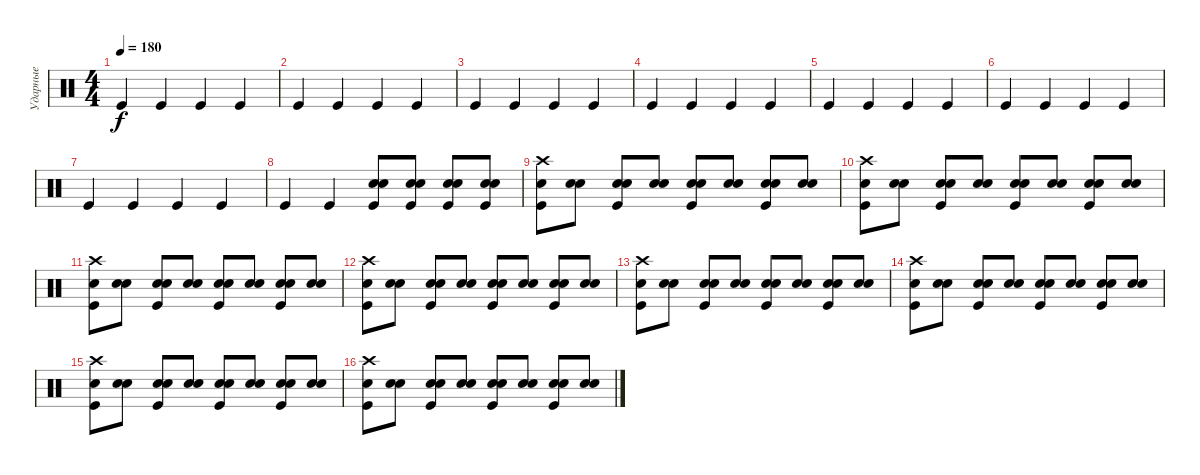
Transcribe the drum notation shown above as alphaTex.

\track ("Ударные" "Ударные") {instrument percussion}
\staff {score}
\articulation defaults
\ts (4 4)
\tempo 180
\clef neutral
\ks c "Kick (hit)".4{dy f} "Kick (hit)".4 "Kick (hit)".4 "Kick (hit)".4
|
"Kick (hit)".4 "Kick (hit)".4 "Kick (hit)".4 "Kick (hit)".4 |
"Kick (hit)".4 "Kick (hit)".4 "Kick (hit)".4 "Kick (hit)".4 |
"Kick (hit)".4 "Kick (hit)".4 "Kick (hit)".4 "Kick (hit)".4 |
"Kick (hit)".4 "Kick (hit)".4 "Kick (hit)".4 "Kick (hit)".4 |
"Kick (hit)".4 "Kick (hit)".4 "Kick (hit)".4 "Kick (hit)".4 |
"Kick (hit)".4 "Kick (hit)".4 "Kick (hit)".4 "Kick (hit)".4 |
"Kick (hit)".4 "Kick (hit)".4 ("Electric Snare (hit)" "Electric Snare (hit)" "Kick (hit)").8 ("Electric Snare (hit)" "Electric Snare (hit)" "Kick (hit)").8 ("Electric Snare (hit)" "Electric Snare (hit)" "Kick (hit)").8 ("Electric Snare (hit)" "Electric Snare (hit)" "Kick (hit)").8 |
("Kick (hit)" "Electric Snare (hit)" "Crash high (hit)").8 ("Electric Snare (hit)" "Electric Snare (hit)").8 ("Kick (hit)" "Electric Snare (hit)" "Electric Snare (hit)").8 ("Electric Snare (hit)" "Electric Snare (hit)").8 ("Kick (hit)" "Electric Snare (hit)" "Electric Snare (hit)").8 ("Electric Snare (hit)" "Electric Snare (hit)").8 ("Kick (hit)" "Electric Snare (hit)" "Electric Snare (hit)").8 ("Electric Snare (hit)" "Snare (hit) 2").8 |
("Kick (hit)" "Electric Snare (hit)" "Crash high (hit)").8 ("Electric Snare (hit)" "Electric Snare (hit)").8 ("Kick (hit)" "Electric Snare (hit)" "Electric Snare (hit)").8 ("Electric Snare (hit)" "Electric Snare (hit)").8 ("Kick (hit)" "Electric Snare (hit)" "Electric Snare (hit)").8 ("Electric Snare (hit)" "Electric Snare (hit)").8 ("Kick (hit)" "Electric Snare (hit)" "Electric Snare (hit)").8 ("Electric Snare (hit)" "Snare (hit) 2").8 |
("Kick (hit)" "Electric Snare (hit)" "Crash high (hit)").8 ("Electric Snare (hit)" "Electric Snare (hit)").8 ("Kick (hit)" "Electric Snare (hit)" "Electric Snare (hit)").8 ("Electric Snare (hit)" "Electric Snare (hit)").8 ("Kick (hit)" "Electric Snare (hit)" "Electric Snare (hit)").8 ("Electric Snare (hit)" "Electric Snare (hit)").8 ("Kick (hit)" "Electric Snare (hit)" "Electric Snare (hit)").8 ("Electric Snare (hit)" "Snare (hit) 2").8 |
("Kick (hit)" "Electric Snare (hit)" "Crash high (hit)").8 ("Electric Snare (hit)" "Electric Snare (hit)").8 ("Kick (hit)" "Electric Snare (hit)" "Electric Snare (hit)").8 ("Electric Snare (hit)" "Electric Snare (hit)").8 ("Kick (hit)" "Electric Snare (hit)" "Electric Snare (hit)").8 ("Electric Snare (hit)" "Electric Snare (hit)").8 ("Kick (hit)" "Electric Snare (hit)" "Electric Snare (hit)").8 ("Electric Snare (hit)" "Snare (hit) 2").8 |
("Kick (hit)" "Electric Snare (hit)" "Crash high (hit)").8 ("Electric Snare (hit)" "Electric Snare (hit)").8 ("Kick (hit)" "Electric Snare (hit)" "Electric Snare (hit)").8 ("Electric Snare (hit)" "Electric Snare (hit)").8 ("Kick (hit)" "Electric Snare (hit)" "Electric Snare (hit)").8 ("Electric Snare (hit)" "Electric Snare (hit)").8 ("Kick (hit)" "Electric Snare (hit)" "Electric Snare (hit)").8 ("Electric Snare (hit)" "Snare (hit) 2").8 |
("Kick (hit)" "Electric Snare (hit)" "Crash high (hit)").8 ("Electric Snare (hit)" "Electric Snare (hit)").8 ("Kick (hit)" "Electric Snare (hit)" "Electric Snare (hit)").8 ("Electric Snare (hit)" "Electric Snare (hit)").8 ("Kick (hit)" "Electric Snare (hit)" "Electric Snare (hit)").8 ("Electric Snare (hit)" "Electric Snare (hit)").8 ("Kick (hit)" "Electric Snare (hit)" "Electric Snare (hit)").8 ("Electric Snare (hit)" "Snare (hit) 2").8 |
("Kick (hit)" "Electric Snare (hit)" "Crash high (hit)").8 ("Electric Snare (hit)" "Electric Snare (hit)").8 ("Kick (hit)" "Electric Snare (hit)" "Electric Snare (hit)").8 ("Electric Snare (hit)" "Electric Snare (hit)").8 ("Kick (hit)" "Electric Snare (hit)" "Electric Snare (hit)").8 ("Electric Snare (hit)" "Electric Snare (hit)").8 ("Kick (hit)" "Electric Snare (hit)" "Electric Snare (hit)").8 ("Electric Snare (hit)" "Snare (hit) 2").8 |
("Kick (hit)" "Electric Snare (hit)" "Crash high (hit)").8 ("Electric Snare (hit)" "Electric Snare (hit)").8 ("Kick (hit)" "Electric Snare (hit)" "Electric Snare (hit)").8 ("Electric Snare (hit)" "Electric Snare (hit)").8 ("Kick (hit)" "Electric Snare (hit)" "Electric Snare (hit)").8 ("Electric Snare (hit)" "Electric Snare (hit)").8 ("Kick (hit)" "Electric Snare (hit)" "Electric Snare (hit)").8 ("Electric Snare (hit)" "Snare (hit) 2").8
